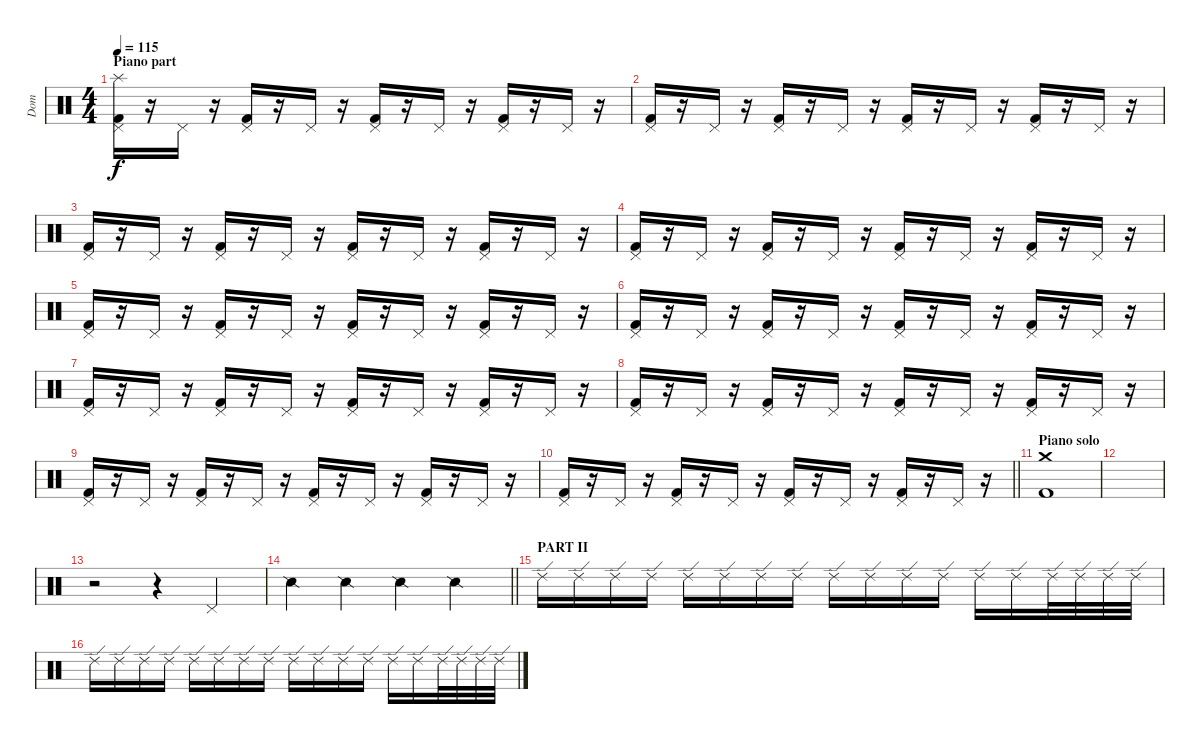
\track ("Dom" "Dom") {instrument percussion}
\staff {score}
\articulation defaults
\ts (4 4)
\section ("" "Piano part")
\tempo 115
\clef neutral
\ks c
("Splash (hit)" "Pedal Hi-Hat (hit)" "Kick (hit) 2").16{dy f} r.16 "Pedal Hi-Hat (hit)".16 r.16 ("Pedal Hi-Hat (hit)" "Kick (hit) 2").16 r.16 "Pedal Hi-Hat (hit)".16 r.16 ("Pedal Hi-Hat (hit)" "Kick (hit) 2").16 r.16 "Pedal Hi-Hat (hit)".16 r.16 ("Pedal Hi-Hat (hit)" "Kick (hit) 2").16 r.16 "Pedal Hi-Hat (hit)".16 r.16 |
("Pedal Hi-Hat (hit)" "Kick (hit) 2").16 r.16 "Pedal Hi-Hat (hit)".16 r.16 ("Pedal Hi-Hat (hit)" "Kick (hit) 2").16 r.16 "Pedal Hi-Hat (hit)".16 r.16 ("Pedal Hi-Hat (hit)" "Kick (hit) 2").16 r.16 "Pedal Hi-Hat (hit)".16 r.16 ("Pedal Hi-Hat (hit)" "Kick (hit) 2").16 r.16 "Pedal Hi-Hat (hit)".16 r.16 |
("Pedal Hi-Hat (hit)" "Kick (hit) 2").16 r.16 "Pedal Hi-Hat (hit)".16 r.16 ("Pedal Hi-Hat (hit)" "Kick (hit) 2").16 r.16 "Pedal Hi-Hat (hit)".16 r.16 ("Pedal Hi-Hat (hit)" "Kick (hit) 2").16 r.16 "Pedal Hi-Hat (hit)".16 r.16 ("Pedal Hi-Hat (hit)" "Kick (hit) 2").16 r.16 "Pedal Hi-Hat (hit)".16 r.16 |
("Pedal Hi-Hat (hit)" "Kick (hit) 2").16 r.16 "Pedal Hi-Hat (hit)".16 r.16 ("Pedal Hi-Hat (hit)" "Kick (hit) 2").16 r.16 "Pedal Hi-Hat (hit)".16 r.16 ("Pedal Hi-Hat (hit)" "Kick (hit) 2").16 r.16 "Pedal Hi-Hat (hit)".16 r.16 ("Pedal Hi-Hat (hit)" "Kick (hit) 2").16 r.16 "Pedal Hi-Hat (hit)".16 r.16 |
("Pedal Hi-Hat (hit)" "Kick (hit) 2").16 r.16 "Pedal Hi-Hat (hit)".16 r.16 ("Pedal Hi-Hat (hit)" "Kick (hit) 2").16 r.16 "Pedal Hi-Hat (hit)".16 r.16 ("Pedal Hi-Hat (hit)" "Kick (hit) 2").16 r.16 "Pedal Hi-Hat (hit)".16 r.16 ("Pedal Hi-Hat (hit)" "Kick (hit) 2").16 r.16 "Pedal Hi-Hat (hit)".16 r.16 |
("Pedal Hi-Hat (hit)" "Kick (hit) 2").16 r.16 "Pedal Hi-Hat (hit)".16 r.16 ("Pedal Hi-Hat (hit)" "Kick (hit) 2").16 r.16 "Pedal Hi-Hat (hit)".16 r.16 ("Pedal Hi-Hat (hit)" "Kick (hit) 2").16 r.16 "Pedal Hi-Hat (hit)".16 r.16 ("Pedal Hi-Hat (hit)" "Kick (hit) 2").16 r.16 "Pedal Hi-Hat (hit)".16 r.16 |
("Pedal Hi-Hat (hit)" "Kick (hit) 2").16 r.16 "Pedal Hi-Hat (hit)".16 r.16 ("Pedal Hi-Hat (hit)" "Kick (hit) 2").16 r.16 "Pedal Hi-Hat (hit)".16 r.16 ("Pedal Hi-Hat (hit)" "Kick (hit) 2").16 r.16 "Pedal Hi-Hat (hit)".16 r.16 ("Pedal Hi-Hat (hit)" "Kick (hit) 2").16 r.16 "Pedal Hi-Hat (hit)".16 r.16 |
("Pedal Hi-Hat (hit)" "Kick (hit) 2").16 r.16 "Pedal Hi-Hat (hit)".16 r.16 ("Pedal Hi-Hat (hit)" "Kick (hit) 2").16 r.16 "Pedal Hi-Hat (hit)".16 r.16 ("Pedal Hi-Hat (hit)" "Kick (hit) 2").16 r.16 "Pedal Hi-Hat (hit)".16 r.16 ("Pedal Hi-Hat (hit)" "Kick (hit) 2").16 r.16 "Pedal Hi-Hat (hit)".16 r.16 |
("Pedal Hi-Hat (hit)" "Kick (hit) 2").16 r.16 "Pedal Hi-Hat (hit)".16 r.16 ("Pedal Hi-Hat (hit)" "Kick (hit) 2").16 r.16 "Pedal Hi-Hat (hit)".16 r.16 ("Pedal Hi-Hat (hit)" "Kick (hit) 2").16 r.16 "Pedal Hi-Hat (hit)".16 r.16 ("Pedal Hi-Hat (hit)" "Kick (hit) 2").16 r.16 "Pedal Hi-Hat (hit)".16 r.16 |
\barLineRight lightlight
("Pedal Hi-Hat (hit)" "Kick (hit) 2").16 r.16 "Pedal Hi-Hat (hit)".16 r.16 ("Pedal Hi-Hat (hit)" "Kick (hit) 2").16 r.16 "Pedal Hi-Hat (hit)".16 r.16 ("Pedal Hi-Hat (hit)" "Kick (hit) 2").16 r.16 "Pedal Hi-Hat (hit)".16 r.16 ("Pedal Hi-Hat (hit)" "Kick (hit) 2").16 r.16 "Pedal Hi-Hat (hit)".16 r.16 |
\section ("" "Piano solo")
("Crash medium (hit)" "Kick (hit) 2").1 |
|
r.2 r.4 "Pedal Hi-Hat (hit)".4 |
\barLineRight lightlight "Snare (side stick) 2".4 "Snare (side stick) 2".4 "Snare (side stick) 2".4 "Snare (side stick) 2".4
|
\section ("" "PART II")
"Ride (edge) 2".16 "Ride (edge) 2".16 "Ride (edge) 2".16 "Ride (edge) 2".16 "Ride (edge) 2".16 "Ride (edge) 2".16 "Ride (edge) 2".16 "Ride (edge) 2".16 "Ride (edge) 2".16 "Ride (edge) 2".16 "Ride (edge) 2".16 "Ride (edge) 2".16 "Ride (edge) 2".16 "Ride (edge) 2".16 "Ride (edge) 2".32 "Ride (edge) 2".32 "Ride (edge) 2".32 "Ride (edge) 2".32 |
"Ride (edge) 2".16 "Ride (edge) 2".16 "Ride (edge) 2".16 "Ride (edge) 2".16 "Ride (edge) 2".16 "Ride (edge) 2".16 "Ride (edge) 2".16 "Ride (edge) 2".16 "Ride (edge) 2".16 "Ride (edge) 2".16 "Ride (edge) 2".16 "Ride (edge) 2".16 "Ride (edge) 2".16 "Ride (edge) 2".16 "Ride (edge) 2".32 "Ride (edge) 2".32 "Ride (edge) 2".32 "Ride (edge) 2".32
